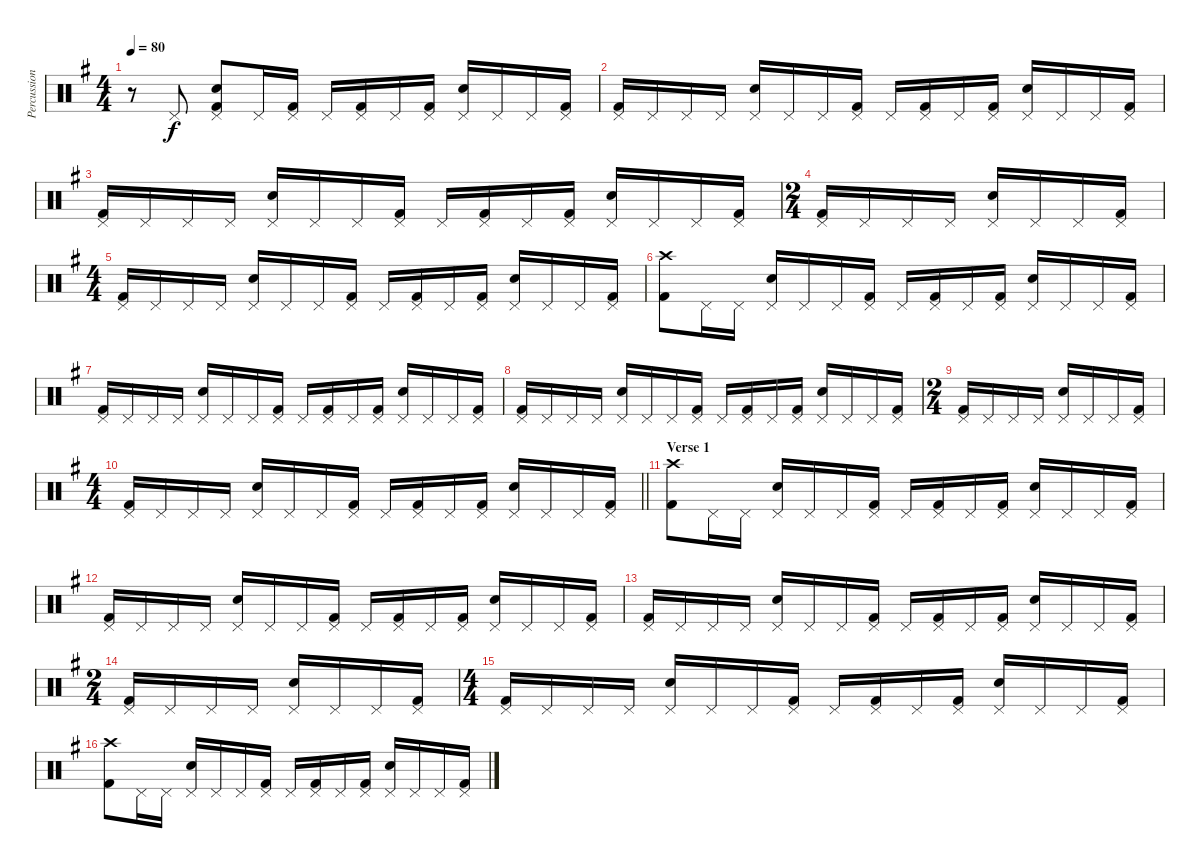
\track ("Percussion" "Percussion") {instrument percussion}
\staff {score}
\articulation defaults
\ts (4 4)
\tempo 80
\clef neutral
\ks g
r.8{dy f} "Pedal Hi-Hat (hit)".8 ("Pedal Hi-Hat (hit)" "Electric Snare (hit)" "Kick (hit) 2").8 "Pedal Hi-Hat (hit)".16 ("Pedal Hi-Hat (hit)" "Kick (hit) 2").16 "Pedal Hi-Hat (hit)".16 ("Pedal Hi-Hat (hit)" "Kick (hit) 2").16 "Pedal Hi-Hat (hit)".16 ("Pedal Hi-Hat (hit)" "Kick (hit) 2").16 ("Pedal Hi-Hat (hit)" "Electric Snare (hit)").16 "Pedal Hi-Hat (hit)".16 "Pedal Hi-Hat (hit)".16 ("Pedal Hi-Hat (hit)" "Kick (hit) 2").16 |
("Pedal Hi-Hat (hit)" "Kick (hit) 2").16 "Pedal Hi-Hat (hit)".16 "Pedal Hi-Hat (hit)".16 "Pedal Hi-Hat (hit)".16 ("Pedal Hi-Hat (hit)" "Electric Snare (hit)").16 "Pedal Hi-Hat (hit)".16 "Pedal Hi-Hat (hit)".16 ("Pedal Hi-Hat (hit)" "Kick (hit) 2").16 "Pedal Hi-Hat (hit)".16 ("Pedal Hi-Hat (hit)" "Kick (hit) 2").16 "Pedal Hi-Hat (hit)".16 ("Pedal Hi-Hat (hit)" "Kick (hit) 2").16 ("Pedal Hi-Hat (hit)" "Electric Snare (hit)").16 "Pedal Hi-Hat (hit)".16 "Pedal Hi-Hat (hit)".16 ("Pedal Hi-Hat (hit)" "Kick (hit) 2").16 |
("Pedal Hi-Hat (hit)" "Kick (hit) 2").16 "Pedal Hi-Hat (hit)".16 "Pedal Hi-Hat (hit)".16 "Pedal Hi-Hat (hit)".16 ("Pedal Hi-Hat (hit)" "Electric Snare (hit)").16 "Pedal Hi-Hat (hit)".16 "Pedal Hi-Hat (hit)".16 ("Pedal Hi-Hat (hit)" "Kick (hit) 2").16 "Pedal Hi-Hat (hit)".16 ("Pedal Hi-Hat (hit)" "Kick (hit) 2").16 "Pedal Hi-Hat (hit)".16 ("Pedal Hi-Hat (hit)" "Kick (hit) 2").16 ("Pedal Hi-Hat (hit)" "Electric Snare (hit)").16 "Pedal Hi-Hat (hit)".16 "Pedal Hi-Hat (hit)".16 ("Pedal Hi-Hat (hit)" "Kick (hit) 2").16 |
\ts (2 4)
("Pedal Hi-Hat (hit)" "Kick (hit) 2").16 "Pedal Hi-Hat (hit)".16 "Pedal Hi-Hat (hit)".16 "Pedal Hi-Hat (hit)".16 ("Pedal Hi-Hat (hit)" "Electric Snare (hit)").16 "Pedal Hi-Hat (hit)".16 "Pedal Hi-Hat (hit)".16 ("Pedal Hi-Hat (hit)" "Kick (hit) 2").16 |
\ts (4 4)
("Pedal Hi-Hat (hit)" "Kick (hit) 2").16 "Pedal Hi-Hat (hit)".16 "Pedal Hi-Hat (hit)".16 "Pedal Hi-Hat (hit)".16 ("Pedal Hi-Hat (hit)" "Electric Snare (hit)").16 "Pedal Hi-Hat (hit)".16 "Pedal Hi-Hat (hit)".16 ("Pedal Hi-Hat (hit)" "Kick (hit) 2").16 "Pedal Hi-Hat (hit)".16 ("Pedal Hi-Hat (hit)" "Kick (hit) 2").16 "Pedal Hi-Hat (hit)".16 ("Pedal Hi-Hat (hit)" "Kick (hit) 2").16 ("Pedal Hi-Hat (hit)" "Electric Snare (hit)").16 "Pedal Hi-Hat (hit)".16 "Pedal Hi-Hat (hit)".16 ("Pedal Hi-Hat (hit)" "Kick (hit) 2").16 |
("Crash high (hit)" "Kick (hit) 2").8 "Pedal Hi-Hat (hit)".16 "Pedal Hi-Hat (hit)".16 ("Pedal Hi-Hat (hit)" "Electric Snare (hit)").16 "Pedal Hi-Hat (hit)".16 "Pedal Hi-Hat (hit)".16 ("Pedal Hi-Hat (hit)" "Kick (hit) 2").16 "Pedal Hi-Hat (hit)".16 ("Pedal Hi-Hat (hit)" "Kick (hit) 2").16 "Pedal Hi-Hat (hit)".16 ("Pedal Hi-Hat (hit)" "Kick (hit) 2").16 ("Pedal Hi-Hat (hit)" "Electric Snare (hit)").16 "Pedal Hi-Hat (hit)".16 "Pedal Hi-Hat (hit)".16 ("Pedal Hi-Hat (hit)" "Kick (hit) 2").16 |
("Pedal Hi-Hat (hit)" "Kick (hit) 2").16 "Pedal Hi-Hat (hit)".16 "Pedal Hi-Hat (hit)".16 "Pedal Hi-Hat (hit)".16 ("Pedal Hi-Hat (hit)" "Electric Snare (hit)").16 "Pedal Hi-Hat (hit)".16 "Pedal Hi-Hat (hit)".16 ("Pedal Hi-Hat (hit)" "Kick (hit) 2").16 "Pedal Hi-Hat (hit)".16 ("Pedal Hi-Hat (hit)" "Kick (hit) 2").16 "Pedal Hi-Hat (hit)".16 ("Pedal Hi-Hat (hit)" "Kick (hit) 2").16 ("Pedal Hi-Hat (hit)" "Electric Snare (hit)").16 "Pedal Hi-Hat (hit)".16 "Pedal Hi-Hat (hit)".16 ("Pedal Hi-Hat (hit)" "Kick (hit) 2").16 |
("Pedal Hi-Hat (hit)" "Kick (hit) 2").16 "Pedal Hi-Hat (hit)".16 "Pedal Hi-Hat (hit)".16 "Pedal Hi-Hat (hit)".16 ("Pedal Hi-Hat (hit)" "Electric Snare (hit)").16 "Pedal Hi-Hat (hit)".16 "Pedal Hi-Hat (hit)".16 ("Pedal Hi-Hat (hit)" "Kick (hit) 2").16 "Pedal Hi-Hat (hit)".16 ("Pedal Hi-Hat (hit)" "Kick (hit) 2").16 "Pedal Hi-Hat (hit)".16 ("Pedal Hi-Hat (hit)" "Kick (hit) 2").16 ("Pedal Hi-Hat (hit)" "Electric Snare (hit)").16 "Pedal Hi-Hat (hit)".16 "Pedal Hi-Hat (hit)".16 ("Pedal Hi-Hat (hit)" "Kick (hit) 2").16 |
\ts (2 4)
("Pedal Hi-Hat (hit)" "Kick (hit) 2").16 "Pedal Hi-Hat (hit)".16 "Pedal Hi-Hat (hit)".16 "Pedal Hi-Hat (hit)".16 ("Pedal Hi-Hat (hit)" "Electric Snare (hit)").16 "Pedal Hi-Hat (hit)".16 "Pedal Hi-Hat (hit)".16 ("Pedal Hi-Hat (hit)" "Kick (hit) 2").16 |
\ts (4 4)
\barLineRight lightlight
("Pedal Hi-Hat (hit)" "Kick (hit) 2").16 "Pedal Hi-Hat (hit)".16 "Pedal Hi-Hat (hit)".16 "Pedal Hi-Hat (hit)".16 ("Pedal Hi-Hat (hit)" "Electric Snare (hit)").16 "Pedal Hi-Hat (hit)".16 "Pedal Hi-Hat (hit)".16 ("Pedal Hi-Hat (hit)" "Kick (hit) 2").16 "Pedal Hi-Hat (hit)".16 ("Pedal Hi-Hat (hit)" "Kick (hit) 2").16 "Pedal Hi-Hat (hit)".16 ("Pedal Hi-Hat (hit)" "Kick (hit) 2").16 ("Pedal Hi-Hat (hit)" "Electric Snare (hit)").16 "Pedal Hi-Hat (hit)".16 "Pedal Hi-Hat (hit)".16 ("Pedal Hi-Hat (hit)" "Kick (hit) 2").16 |
\section ("" "Verse 1")
("Crash high (hit)" "Kick (hit) 2").8 "Pedal Hi-Hat (hit)".16 "Pedal Hi-Hat (hit)".16 ("Pedal Hi-Hat (hit)" "Electric Snare (hit)").16 "Pedal Hi-Hat (hit)".16 "Pedal Hi-Hat (hit)".16 ("Pedal Hi-Hat (hit)" "Kick (hit) 2").16 "Pedal Hi-Hat (hit)".16 ("Pedal Hi-Hat (hit)" "Kick (hit) 2").16 "Pedal Hi-Hat (hit)".16 ("Pedal Hi-Hat (hit)" "Kick (hit) 2").16 ("Pedal Hi-Hat (hit)" "Electric Snare (hit)").16 "Pedal Hi-Hat (hit)".16 "Pedal Hi-Hat (hit)".16 ("Pedal Hi-Hat (hit)" "Kick (hit) 2").16 |
("Pedal Hi-Hat (hit)" "Kick (hit) 2").16 "Pedal Hi-Hat (hit)".16 "Pedal Hi-Hat (hit)".16 "Pedal Hi-Hat (hit)".16 ("Pedal Hi-Hat (hit)" "Electric Snare (hit)").16 "Pedal Hi-Hat (hit)".16 "Pedal Hi-Hat (hit)".16 ("Pedal Hi-Hat (hit)" "Kick (hit) 2").16 "Pedal Hi-Hat (hit)".16 ("Pedal Hi-Hat (hit)" "Kick (hit) 2").16 "Pedal Hi-Hat (hit)".16 ("Pedal Hi-Hat (hit)" "Kick (hit) 2").16 ("Pedal Hi-Hat (hit)" "Electric Snare (hit)").16 "Pedal Hi-Hat (hit)".16 "Pedal Hi-Hat (hit)".16 ("Pedal Hi-Hat (hit)" "Kick (hit) 2").16 |
("Pedal Hi-Hat (hit)" "Kick (hit) 2").16 "Pedal Hi-Hat (hit)".16 "Pedal Hi-Hat (hit)".16 "Pedal Hi-Hat (hit)".16 ("Pedal Hi-Hat (hit)" "Electric Snare (hit)").16 "Pedal Hi-Hat (hit)".16 "Pedal Hi-Hat (hit)".16 ("Pedal Hi-Hat (hit)" "Kick (hit) 2").16 "Pedal Hi-Hat (hit)".16 ("Pedal Hi-Hat (hit)" "Kick (hit) 2").16 "Pedal Hi-Hat (hit)".16 ("Pedal Hi-Hat (hit)" "Kick (hit) 2").16 ("Pedal Hi-Hat (hit)" "Electric Snare (hit)").16 "Pedal Hi-Hat (hit)".16 "Pedal Hi-Hat (hit)".16 ("Pedal Hi-Hat (hit)" "Kick (hit) 2").16 |
\ts (2 4)
("Pedal Hi-Hat (hit)" "Kick (hit) 2").16 "Pedal Hi-Hat (hit)".16 "Pedal Hi-Hat (hit)".16 "Pedal Hi-Hat (hit)".16 ("Pedal Hi-Hat (hit)" "Electric Snare (hit)").16 "Pedal Hi-Hat (hit)".16 "Pedal Hi-Hat (hit)".16 ("Pedal Hi-Hat (hit)" "Kick (hit) 2").16 |
\ts (4 4)
("Pedal Hi-Hat (hit)" "Kick (hit) 2").16 "Pedal Hi-Hat (hit)".16 "Pedal Hi-Hat (hit)".16 "Pedal Hi-Hat (hit)".16 ("Pedal Hi-Hat (hit)" "Electric Snare (hit)").16 "Pedal Hi-Hat (hit)".16 "Pedal Hi-Hat (hit)".16 ("Pedal Hi-Hat (hit)" "Kick (hit) 2").16 "Pedal Hi-Hat (hit)".16 ("Pedal Hi-Hat (hit)" "Kick (hit) 2").16 "Pedal Hi-Hat (hit)".16 ("Pedal Hi-Hat (hit)" "Kick (hit) 2").16 ("Pedal Hi-Hat (hit)" "Electric Snare (hit)").16 "Pedal Hi-Hat (hit)".16 "Pedal Hi-Hat (hit)".16 ("Pedal Hi-Hat (hit)" "Kick (hit) 2").16 |
("Crash high (hit)" "Kick (hit) 2").8 "Pedal Hi-Hat (hit)".16 "Pedal Hi-Hat (hit)".16 ("Pedal Hi-Hat (hit)" "Electric Snare (hit)").16 "Pedal Hi-Hat (hit)".16 "Pedal Hi-Hat (hit)".16 ("Pedal Hi-Hat (hit)" "Kick (hit) 2").16 "Pedal Hi-Hat (hit)".16 ("Pedal Hi-Hat (hit)" "Kick (hit) 2").16 "Pedal Hi-Hat (hit)".16 ("Pedal Hi-Hat (hit)" "Kick (hit) 2").16 ("Pedal Hi-Hat (hit)" "Electric Snare (hit)").16 "Pedal Hi-Hat (hit)".16 "Pedal Hi-Hat (hit)".16 ("Pedal Hi-Hat (hit)" "Kick (hit) 2").16
